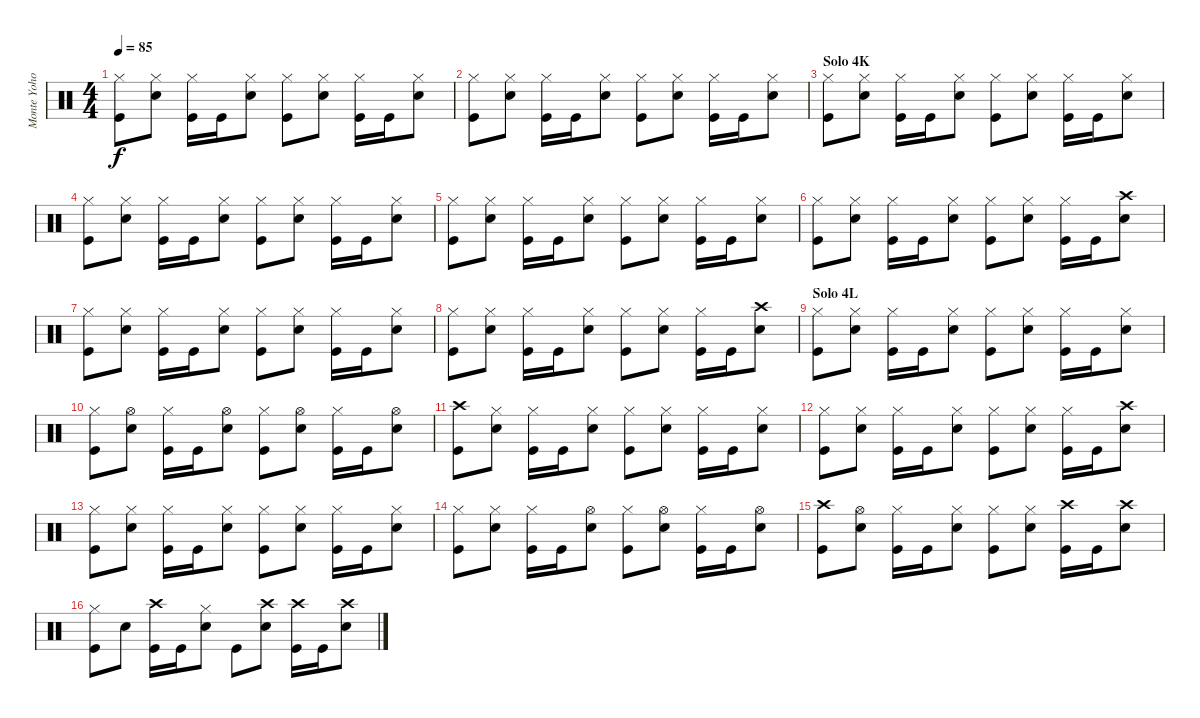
\track ("Monte Yoho - Drums" "Monte Yoho") {instrument percussion}
\staff {score}
\articulation defaults
\ts (4 4)
\tempo 85
\clef neutral
\ks c
("Hi-Hat (closed)" "Kick (hit)").8{dy f} ("Hi-Hat (closed)" "Snare (hit) 2").8 ("Hi-Hat (closed)" "Kick (hit)").16 "Kick (hit)".16 ("Hi-Hat (closed)" "Snare (hit) 2").8 ("Hi-Hat (closed)" "Kick (hit)").8 ("Hi-Hat (closed)" "Snare (hit) 2").8 ("Hi-Hat (closed)" "Kick (hit)").16 "Kick (hit)".16 ("Hi-Hat (closed)" "Snare (hit) 2").8 |
("Hi-Hat (closed)" "Kick (hit)").8 ("Hi-Hat (closed)" "Snare (hit) 2").8 ("Hi-Hat (closed)" "Kick (hit)").16 "Kick (hit)".16 ("Hi-Hat (closed)" "Snare (hit) 2").8 ("Hi-Hat (closed)" "Kick (hit)").8 ("Hi-Hat (closed)" "Snare (hit) 2").8 ("Hi-Hat (closed)" "Kick (hit)").16 "Kick (hit)".16 ("Hi-Hat (closed)" "Snare (hit) 2").8 |
\section ("" "Solo 4K")
("Hi-Hat (closed)" "Kick (hit)").8 ("Hi-Hat (closed)" "Snare (hit) 2").8 ("Hi-Hat (closed)" "Kick (hit)").16 "Kick (hit)".16 ("Hi-Hat (closed)" "Snare (hit) 2").8 ("Hi-Hat (closed)" "Kick (hit)").8 ("Hi-Hat (closed)" "Snare (hit) 2").8 ("Hi-Hat (closed)" "Kick (hit)").16 "Kick (hit)".16 ("Hi-Hat (closed)" "Snare (hit) 2").8 |
("Hi-Hat (closed)" "Kick (hit)").8 ("Hi-Hat (closed)" "Snare (hit) 2").8 ("Hi-Hat (closed)" "Kick (hit)").16 "Kick (hit)".16 ("Hi-Hat (closed)" "Snare (hit) 2").8 ("Hi-Hat (closed)" "Kick (hit)").8 ("Hi-Hat (closed)" "Snare (hit) 2").8 ("Hi-Hat (closed)" "Kick (hit)").16 "Kick (hit)".16 ("Hi-Hat (closed)" "Snare (hit) 2").8 |
("Hi-Hat (closed)" "Kick (hit)").8 ("Hi-Hat (closed)" "Snare (hit) 2").8 ("Hi-Hat (closed)" "Kick (hit)").16 "Kick (hit)".16 ("Hi-Hat (closed)" "Snare (hit) 2").8 ("Hi-Hat (closed)" "Kick (hit)").8 ("Hi-Hat (closed)" "Snare (hit) 2").8 ("Hi-Hat (closed)" "Kick (hit)").16 "Kick (hit)".16 ("Hi-Hat (closed)" "Snare (hit) 2").8 |
("Hi-Hat (closed)" "Kick (hit)").8 ("Hi-Hat (closed)" "Snare (hit) 2").8 ("Hi-Hat (closed)" "Kick (hit)").16 "Kick (hit)".16 ("Hi-Hat (closed)" "Snare (hit) 2").8 ("Hi-Hat (closed)" "Kick (hit)").8 ("Hi-Hat (closed)" "Snare (hit) 2").8 ("Hi-Hat (closed)" "Kick (hit)").16 "Kick (hit)".16 ("Crash high (hit)" "Snare (hit) 2").8 |
("Hi-Hat (closed)" "Kick (hit)").8 ("Hi-Hat (closed)" "Snare (hit) 2").8 ("Hi-Hat (closed)" "Kick (hit)").16 "Kick (hit)".16 ("Hi-Hat (closed)" "Snare (hit) 2").8 ("Hi-Hat (closed)" "Kick (hit)").8 ("Hi-Hat (closed)" "Snare (hit) 2").8 ("Hi-Hat (closed)" "Kick (hit)").16 "Kick (hit)".16 ("Hi-Hat (closed)" "Snare (hit) 2").8 |
("Hi-Hat (closed)" "Kick (hit)").8 ("Hi-Hat (closed)" "Snare (hit) 2").8 ("Hi-Hat (closed)" "Kick (hit)").16 "Kick (hit)".16 ("Hi-Hat (closed)" "Snare (hit) 2").8 ("Hi-Hat (closed)" "Kick (hit)").8 ("Hi-Hat (closed)" "Snare (hit) 2").8 ("Hi-Hat (closed)" "Kick (hit)").16 "Kick (hit)".16 ("Crash high (hit)" "Snare (hit) 2").8 |
\section ("" "Solo 4L")
("Hi-Hat (closed)" "Kick (hit)").8 ("Hi-Hat (closed)" "Snare (hit) 2").8 ("Hi-Hat (closed)" "Kick (hit)").16 "Kick (hit)".16 ("Hi-Hat (closed)" "Snare (hit) 2").8 ("Hi-Hat (closed)" "Kick (hit)").8 ("Hi-Hat (closed)" "Snare (hit) 2").8 ("Hi-Hat (closed)" "Kick (hit)").16 "Kick (hit)".16 ("Hi-Hat (closed)" "Snare (hit) 2").8 |
("Hi-Hat (closed)" "Kick (hit)").8 ("Hi-Hat (open)" "Snare (hit) 2").8 ("Hi-Hat (closed)" "Kick (hit)").16 "Kick (hit)".16 ("Hi-Hat (open)" "Snare (hit) 2").8 ("Hi-Hat (closed)" "Kick (hit)").8 ("Hi-Hat (open)" "Snare (hit) 2").8 ("Hi-Hat (closed)" "Kick (hit)").16 "Kick (hit)".16 ("Hi-Hat (open)" "Snare (hit) 2").8 |
("Crash high (hit)" "Kick (hit)").8 ("Hi-Hat (closed)" "Snare (hit) 2").8 ("Hi-Hat (closed)" "Kick (hit)").16 "Kick (hit)".16 ("Hi-Hat (closed)" "Snare (hit) 2").8 ("Hi-Hat (closed)" "Kick (hit)").8 ("Hi-Hat (closed)" "Snare (hit) 2").8 ("Hi-Hat (closed)" "Kick (hit)").16 "Kick (hit)".16 ("Hi-Hat (closed)" "Snare (hit) 2").8 |
("Hi-Hat (closed)" "Kick (hit)").8 ("Hi-Hat (closed)" "Snare (hit) 2").8 ("Hi-Hat (closed)" "Kick (hit)").16 "Kick (hit)".16 ("Hi-Hat (closed)" "Snare (hit) 2").8 ("Hi-Hat (closed)" "Kick (hit)").8 ("Hi-Hat (closed)" "Snare (hit) 2").8 ("Hi-Hat (closed)" "Kick (hit)").16 "Kick (hit)".16 ("Crash high (hit)" "Snare (hit) 2").8 |
("Hi-Hat (closed)" "Kick (hit)").8 ("Hi-Hat (closed)" "Snare (hit) 2").8 ("Hi-Hat (closed)" "Kick (hit)").16 "Kick (hit)".16 ("Hi-Hat (closed)" "Snare (hit) 2").8 ("Hi-Hat (closed)" "Kick (hit)").8 ("Hi-Hat (closed)" "Snare (hit) 2").8 ("Hi-Hat (closed)" "Kick (hit)").16 "Kick (hit)".16 ("Hi-Hat (closed)" "Snare (hit) 2").8 |
("Hi-Hat (closed)" "Kick (hit)").8 ("Hi-Hat (closed)" "Snare (hit) 2").8 ("Hi-Hat (closed)" "Kick (hit)").16 "Kick (hit)".16 ("Hi-Hat (open)" "Snare (hit) 2").8 ("Hi-Hat (closed)" "Kick (hit)").8 ("Hi-Hat (open)" "Snare (hit) 2").8 ("Hi-Hat (closed)" "Kick (hit)").16 "Kick (hit)".16 ("Hi-Hat (open)" "Snare (hit) 2").8 |
("Crash high (hit)" "Kick (hit)").8 ("Hi-Hat (open)" "Snare (hit) 2").8 ("Hi-Hat (closed)" "Kick (hit)").16 "Kick (hit)".16 ("Hi-Hat (closed)" "Snare (hit) 2").8 ("Hi-Hat (closed)" "Kick (hit)").8 ("Hi-Hat (closed)" "Snare (hit) 2").8 ("Crash high (hit)" "Kick (hit)").16 "Kick (hit)".16 ("Crash high (hit)" "Snare (hit) 2").8 |
("Hi-Hat (closed)" "Kick (hit)").8 "Snare (hit) 2".8 ("Crash high (hit)" "Kick (hit)").16 "Kick (hit)".16 ("Hi-Hat (closed)" "Snare (hit) 2").8 "Kick (hit)".8 ("Crash high (hit)" "Snare (hit) 2").8 ("Crash high (hit)" "Kick (hit)").16 "Kick (hit)".16 ("Crash high (hit)" "Snare (hit) 2").8
